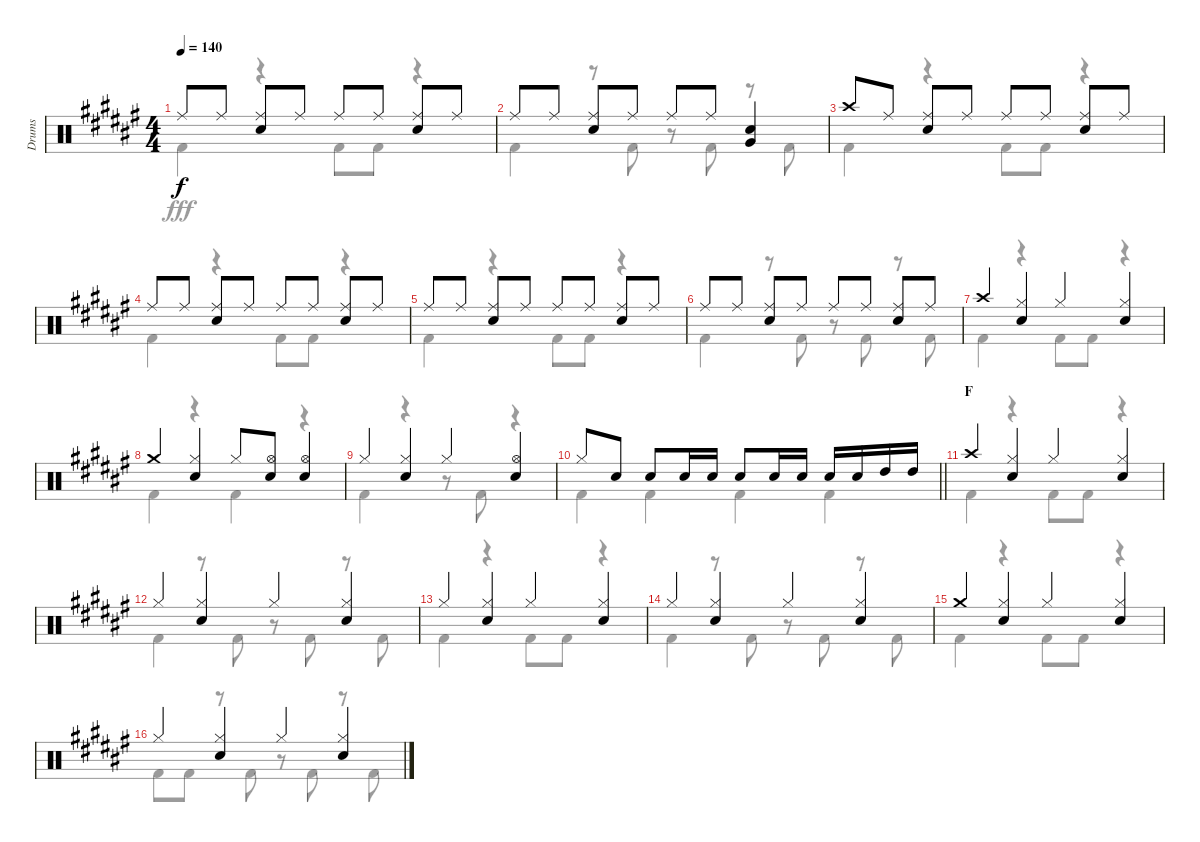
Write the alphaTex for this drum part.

\track ("Drums" "Drums") {instrument percussion}
\staff {score}
\articulation defaults
\voice
\ts (4 4)
\tempo 140
\clef neutral
\ks f# "Ride (middle)".8{dy f} "Ride (middle)".8
("Ride (middle)" "Snare (hit) 2").8 "Ride (middle)".8 "Ride (middle)".8 "Ride (middle)".8 ("Ride (middle)" "Snare (hit) 2").8 "Ride (middle)".8 |
"Ride (middle)".8 "Ride (middle)".8 ("Ride (middle)" "Snare (hit) 2").8 "Ride (middle)".8 "Ride (middle)".8 "Ride (middle)".8 ("Snare (hit) 2" "Very Low Tom (hit)").4 |
"Crash high (hit)".8 "Ride (middle)".8 ("Ride (middle)" "Snare (hit) 2").8 "Ride (middle)".8 "Ride (middle)".8 "Ride (middle)".8 ("Ride (middle)" "Snare (hit) 2").8 "Ride (middle)".8 |
"Ride (middle)".8 "Ride (middle)".8 ("Ride (middle)" "Snare (hit) 2").8 "Ride (middle)".8 "Ride (middle)".8 "Ride (middle)".8 ("Ride (middle)" "Snare (hit) 2").8 "Ride (middle)".8 |
"Ride (middle)".8 "Ride (middle)".8 ("Ride (middle)" "Snare (hit) 2").8 "Ride (middle)".8 "Ride (middle)".8 "Ride (middle)".8 ("Ride (middle)" "Snare (hit) 2").8 "Ride (middle)".8 |
"Ride (middle)".8 "Ride (middle)".8 ("Ride (middle)" "Snare (hit) 2").8 "Ride (middle)".8 "Ride (middle)".8 "Ride (middle)".8 ("Ride (middle)" "Snare (hit) 2").8 "Ride (middle)".8 |
"Crash high (hit)".4 ("Hi-Hat (closed)" "Snare (hit) 2").4 "Hi-Hat (closed)".4 ("Hi-Hat (closed)" "Snare (hit) 2").4 |
"Crash medium (hit)".4 ("Hi-Hat (closed)" "Snare (hit) 2").4 "Hi-Hat (closed)".8 ("Hi-Hat (open)" "Snare (hit) 2").8 ("Hi-Hat (open)" "Snare (hit) 2").4 |
"Hi-Hat (closed)".4 ("Hi-Hat (closed)" "Snare (hit) 2").4 "Hi-Hat (closed)".4 ("Hi-Hat (open)" "Snare (hit) 2").4 |
\barLineRight lightlight "Hi-Hat (closed)".8 "Snare (hit) 2".8 "Snare (hit) 2".8 "Snare (hit) 2".16 "Snare (hit) 2".16 "Snare (hit) 2".8 "Snare (hit) 2".16 "Snare (hit) 2".16 "Snare (hit) 2".16 "Snare (hit) 2".16 "High Tom (hit)".16 "High Tom (hit)".16
|
\section ("" "F")
"Crash high (hit)".4 ("Hi-Hat (closed)" "Snare (hit) 2").4 "Hi-Hat (closed)".4 ("Hi-Hat (closed)" "Snare (hit) 2").4 |
"Hi-Hat (closed)".4 ("Hi-Hat (closed)" "Snare (hit) 2").4 "Hi-Hat (closed)".4 ("Hi-Hat (closed)" "Snare (hit) 2").4 |
"Hi-Hat (closed)".4 ("Hi-Hat (closed)" "Snare (hit) 2").4 "Hi-Hat (closed)".4 ("Hi-Hat (closed)" "Snare (hit) 2").4 |
"Hi-Hat (closed)".4 ("Hi-Hat (closed)" "Snare (hit) 2").4 "Hi-Hat (closed)".4 ("Hi-Hat (closed)" "Snare (hit) 2").4 |
"Crash medium (hit)".4 ("Hi-Hat (closed)" "Snare (hit) 2").4 "Hi-Hat (closed)".4 ("Hi-Hat (closed)" "Snare (hit) 2").4 |
"Hi-Hat (closed)".4 ("Hi-Hat (closed)" "Snare (hit) 2").4 "Hi-Hat (closed)".4 ("Hi-Hat (closed)" "Snare (hit) 2").4
\voice
\clef neutral
\ottava regular
\simile none
\ks f# "Kick (hit) 2".4{dy fff}
r.4 "Kick (hit) 2".8 "Kick (hit) 2".8 r.4 |
"Kick (hit) 2".4 r.8 "Kick (hit) 2".8 r.8 "Kick (hit) 2".8 r.8 "Kick (hit) 2".8 |
"Kick (hit) 2".4 r.4 "Kick (hit) 2".8 "Kick (hit) 2".8 r.4 |
"Kick (hit) 2".4 r.4 "Kick (hit) 2".8 "Kick (hit) 2".8 r.4 |
"Kick (hit) 2".4 r.4 "Kick (hit) 2".8 "Kick (hit) 2".8 r.4 |
"Kick (hit) 2".4 r.8 "Kick (hit) 2".8 r.8 "Kick (hit) 2".8 r.8 "Kick (hit) 2".8 |
"Kick (hit) 2".4 r.4 "Kick (hit) 2".8 "Kick (hit) 2".8 r.4 |
"Kick (hit) 2".4 r.4 "Kick (hit) 2".4 r.4 |
"Kick (hit) 2".4 r.4 r.8 "Kick (hit) 2".8 r.4 |
\barLineRight lightlight "Kick (hit) 2".4 "Kick (hit) 2".4 "Kick (hit) 2".4 "Kick (hit) 2".4
|
"Kick (hit) 2".4 r.4 "Kick (hit) 2".8 "Kick (hit) 2".8 r.4 |
"Kick (hit) 2".4 r.8 "Kick (hit) 2".8 r.8 "Kick (hit) 2".8 r.8 "Kick (hit) 2".8 |
"Kick (hit) 2".4 r.4 "Kick (hit) 2".8 "Kick (hit) 2".8 r.4 |
"Kick (hit) 2".4 r.8 "Kick (hit) 2".8 r.8 "Kick (hit) 2".8 r.8 "Kick (hit) 2".8 |
"Kick (hit) 2".4 r.4 "Kick (hit) 2".8 "Kick (hit) 2".8 r.4 |
"Kick (hit) 2".8 "Kick (hit) 2".8 r.8 "Kick (hit) 2".8 r.8 "Kick (hit) 2".8 r.8 "Kick (hit) 2".8
